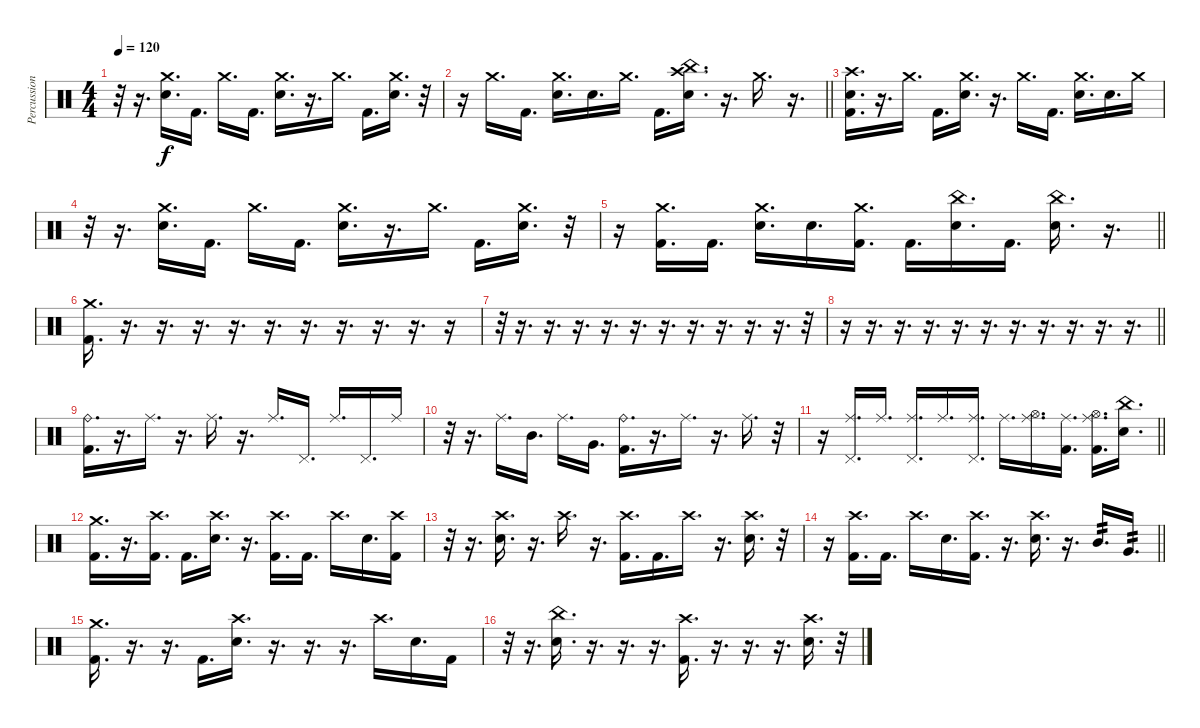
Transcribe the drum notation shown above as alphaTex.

\track ("Percussion" "Percussion") {instrument percussion}
\staff
\articulation defaults
\ts (4 4)
\tempo 120
\clef neutral
\ks c
r.32{dy f} r.16{d} ("Crash medium (hit)" "Electric Snare (hit)").16{d} "Kick (hit) 2".16{d} "Crash medium (hit)".16{d} "Kick (hit) 2".16{d} ("Crash medium (hit)" "Electric Snare (hit)").16{d} r.16{d} "Crash medium (hit)".16{d} "Kick (hit) 2".16{d} ("Crash medium (hit)" "Electric Snare (hit)").16{d} r.32 |
\barLineRight lightlight
r.16 "Crash medium (hit)".16{d} "Kick (hit) 2".16{d} ("Crash medium (hit)" "Electric Snare (hit)").16{d} "Electric Snare (hit)".16{d} "Crash medium (hit)".16{d} "Kick (hit) 2".16{d} ("Crash high (hit)" "China (hit)" "Electric Snare (hit)").16{d} r.16{d} "Crash medium (hit)".16{d} r.16{d} |
("Crash high (hit)" "Electric Snare (hit)" "Kick (hit) 2").16{d} r.16{d} "Crash medium (hit)".16{d} "Kick (hit) 2".16{d} ("Crash medium (hit)" "Electric Snare (hit)").16{d} r.16{d} "Crash medium (hit)".16{d} "Kick (hit) 2".16{d} ("Crash medium (hit)" "Electric Snare (hit)").16{d} "Electric Snare (hit)".16{d} "Crash medium (hit)".16 |
r.32 r.16{d} ("Crash medium (hit)" "Electric Snare (hit)").16{d} "Kick (hit) 2".16{d} "Crash medium (hit)".16{d} "Kick (hit) 2".16{d} ("Crash medium (hit)" "Electric Snare (hit)").16{d} r.16{d} "Crash medium (hit)".16{d} "Kick (hit) 2".16{d} ("Crash medium (hit)" "Electric Snare (hit)").16{d} r.32 |
\barLineRight lightlight
r.16 ("Crash medium (hit)" "Kick (hit) 2").16{d} "Kick (hit) 2".16{d} ("Crash medium (hit)" "Electric Snare (hit)").16{d} "Electric Snare (hit)".16{d} ("Crash medium (hit)" "Kick (hit) 2").16{d} "Kick (hit) 2".16{d} ("China (hit)" "Electric Snare (hit)").16{d} "Kick (hit) 2".16{d} ("China (hit)" "Electric Snare (hit)").16{d} r.16{d} |
("Crash medium (hit)" "Kick (hit) 2").16{d} r.16{d} r.16{d} r.16{d} r.16{d} r.16{d} r.16{d} r.16{d} r.16{d} r.16{d} r.16 |
r.32 r.16{d} r.16{d} r.16{d} r.16{d} r.16{d} r.16{d} r.16{d} r.16{d} r.16{d} r.16{d} r.32 |
\barLineRight lightlight
r.16 r.16{d} r.16{d} r.16{d} r.16{d} r.16{d} r.16{d} r.16{d} r.16{d} r.16{d} r.16{d} |
("Ride (bell)" "Kick (hit) 2").16{d} r.16{d} "Ride (middle)".16{d} r.16{d} "Ride (middle)".16{d} r.16{d} "Ride (middle)".16{d} "Pedal Hi-Hat (hit)".16{d} "Ride (middle)".16{d} "Pedal Hi-Hat (hit)".16{d} "Ride (middle)".16 |
r.32 r.16{d} "Ride (middle)".16{d} "Mid Tom (hit)".16{d} "Ride (middle)".16{d} "Very Low Tom (hit)".16{d} ("Ride (bell)" "Kick (hit) 2").16{d} r.16{d} "Ride (middle)".16{d} r.16{d} "Ride (middle)".16{d} r.32 |
\barLineRight lightlight
r.16 ("Pedal Hi-Hat (hit)" "Ride (middle)").16{d} "Ride (middle)".16{d} ("Pedal Hi-Hat (hit)" "Ride (middle)").16{d} "Ride (middle)".16{d} ("Pedal Hi-Hat (hit)" "Ride (middle)").16{d} "Ride (middle)".16{d} ("Hi-Hat (open)" "Ride (middle)").16{d} ("Ride (middle)" "Kick (hit) 2").16{d} ("Hi-Hat (open)" "Ride (middle)" "Kick (hit) 2").16{d} ("China (hit)" "Electric Snare (hit)").16{d} |
("Crash medium (hit)" "Kick (hit) 2").16{d} r.16{d} ("Crash high (hit)" "Kick (hit) 2").16{d} "Kick (hit) 2".16{d} ("Crash high (hit)" "Electric Snare (hit)").16{d} r.16{d} ("Crash high (hit)" "Kick (hit) 2").16{d} "Kick (hit) 2".16{d} "Crash high (hit)".16{d} "Electric Snare (hit)".16{d} ("Crash high (hit)" "Kick (hit) 2").16 |
r.32 r.16{d} ("Crash high (hit)" "Electric Snare (hit)").16{d} r.16{d} "Crash high (hit)".16{d} r.16{d} ("Crash high (hit)" "Kick (hit) 2").16{d} "Kick (hit) 2".16{d} "Crash high (hit)".16{d} r.16{d} ("Crash high (hit)" "Electric Snare (hit)").16{d} r.32 |
\barLineRight lightlight
r.16 ("Crash high (hit)" "Kick (hit) 2").16{d} "Kick (hit) 2".16{d} "Crash high (hit)".16{d} "Electric Snare (hit)".16{d} ("Crash high (hit)" "Kick (hit) 2").16{d} r.16{d} ("Crash high (hit)" "Electric Snare (hit)").16{d} r.16{d} "Mid Tom (hit)".16{d tp 2} "Very Low Tom (hit)".16{d tp 2} |
("Crash medium (hit)" "Kick (hit) 2").16{d} r.16{d} r.16{d} "Kick (hit) 2".16{d} ("Crash high (hit)" "Electric Snare (hit)").16{d} r.16{d} r.16{d} r.16{d} "Crash high (hit)".16{d} "Electric Snare (hit)".16{d} "Kick (hit) 2".16 |
r.32 r.16{d} ("China (hit)" "Electric Snare (hit)").16{d} r.16{d} r.16{d} r.16{d} ("Crash high (hit)" "Kick (hit) 2").16{d} r.16{d} r.16{d} r.16{d} ("Crash high (hit)" "Electric Snare (hit)").16{d} r.32
